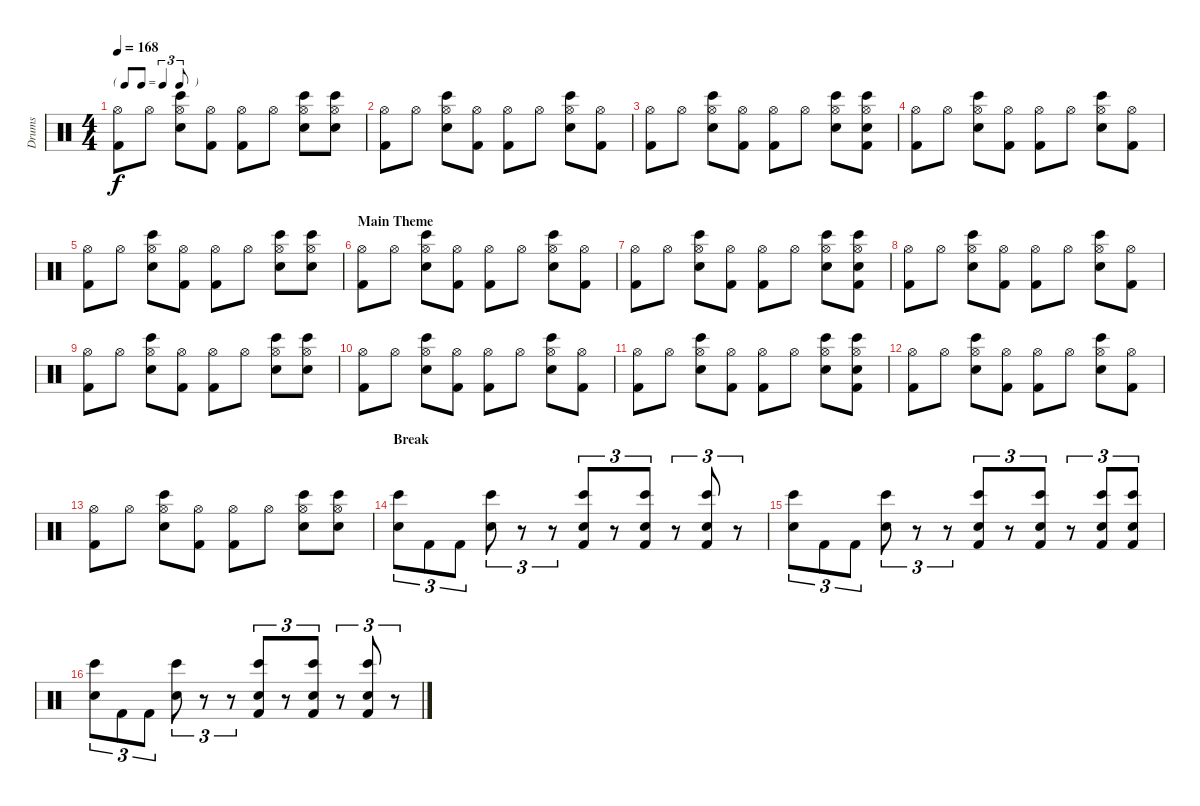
\track ("Drums" "Drums") {instrument percussion}
\staff {score}
\articulation defaults
\ts (4 4)
\tf triplet8th
\tempo 168
\clef neutral
\ks c
("Hi-Hat (open)" "Kick (hit) 2").8{dy f} "Hi-Hat (open)".8 ("Hi-Hat (open)" "Bongo High (hit)" "Snare (hit) 2").8 ("Hi-Hat (open)" "Kick (hit) 2").8 ("Hi-Hat (open)" "Kick (hit) 2").8 "Hi-Hat (open)".8 ("Hi-Hat (open)" "Bongo High (hit)" "Snare (hit) 2").8 ("Hi-Hat (open)" "Bongo High (hit)" "Snare (hit) 2").8 |
("Hi-Hat (open)" "Kick (hit) 2").8 "Hi-Hat (open)".8 ("Hi-Hat (open)" "Bongo High (hit)" "Snare (hit) 2").8 ("Hi-Hat (open)" "Kick (hit) 2").8 ("Hi-Hat (open)" "Kick (hit) 2").8 "Hi-Hat (open)".8 ("Hi-Hat (open)" "Bongo High (hit)" "Snare (hit) 2").8 ("Hi-Hat (open)" "Kick (hit) 2").8 |
("Hi-Hat (open)" "Kick (hit) 2").8 "Hi-Hat (open)".8 ("Hi-Hat (open)" "Bongo High (hit)" "Snare (hit) 2").8 ("Hi-Hat (open)" "Kick (hit) 2").8 ("Hi-Hat (open)" "Kick (hit) 2").8 "Hi-Hat (open)".8 ("Hi-Hat (open)" "Bongo High (hit)" "Snare (hit) 2").8 ("Hi-Hat (open)" "Bongo High (hit)" "Snare (hit) 2" "Kick (hit) 2").8 |
("Hi-Hat (open)" "Kick (hit) 2").8 "Hi-Hat (open)".8 ("Hi-Hat (open)" "Bongo High (hit)" "Snare (hit) 2").8 ("Hi-Hat (open)" "Kick (hit) 2").8 ("Hi-Hat (open)" "Kick (hit) 2").8 "Hi-Hat (open)".8 ("Hi-Hat (open)" "Bongo High (hit)" "Snare (hit) 2").8 ("Hi-Hat (open)" "Kick (hit) 2").8 |
("Hi-Hat (open)" "Kick (hit) 2").8 "Hi-Hat (open)".8 ("Hi-Hat (open)" "Bongo High (hit)" "Snare (hit) 2").8 ("Hi-Hat (open)" "Kick (hit) 2").8 ("Hi-Hat (open)" "Kick (hit) 2").8 "Hi-Hat (open)".8 ("Hi-Hat (open)" "Bongo High (hit)" "Snare (hit) 2").8 ("Hi-Hat (open)" "Bongo High (hit)" "Snare (hit) 2").8 |
\section ("" "Main Theme")
("Hi-Hat (open)" "Kick (hit) 2").8 "Hi-Hat (open)".8 ("Hi-Hat (open)" "Bongo High (hit)" "Snare (hit) 2").8 ("Hi-Hat (open)" "Kick (hit) 2").8 ("Hi-Hat (open)" "Kick (hit) 2").8 "Hi-Hat (open)".8 ("Hi-Hat (open)" "Bongo High (hit)" "Snare (hit) 2").8 ("Hi-Hat (open)" "Kick (hit) 2").8 |
("Hi-Hat (open)" "Kick (hit) 2").8 "Hi-Hat (open)".8 ("Hi-Hat (open)" "Bongo High (hit)" "Snare (hit) 2").8 ("Hi-Hat (open)" "Kick (hit) 2").8 ("Hi-Hat (open)" "Kick (hit) 2").8 "Hi-Hat (open)".8 ("Hi-Hat (open)" "Bongo High (hit)" "Snare (hit) 2").8 ("Hi-Hat (open)" "Bongo High (hit)" "Snare (hit) 2" "Kick (hit) 2").8 |
("Hi-Hat (open)" "Kick (hit) 2").8 "Hi-Hat (open)".8 ("Hi-Hat (open)" "Bongo High (hit)" "Snare (hit) 2").8 ("Hi-Hat (open)" "Kick (hit) 2").8 ("Hi-Hat (open)" "Kick (hit) 2").8 "Hi-Hat (open)".8 ("Hi-Hat (open)" "Bongo High (hit)" "Snare (hit) 2").8 ("Hi-Hat (open)" "Kick (hit) 2").8 |
("Hi-Hat (open)" "Kick (hit) 2").8 "Hi-Hat (open)".8 ("Hi-Hat (open)" "Bongo High (hit)" "Snare (hit) 2").8 ("Hi-Hat (open)" "Kick (hit) 2").8 ("Hi-Hat (open)" "Kick (hit) 2").8 "Hi-Hat (open)".8 ("Hi-Hat (open)" "Bongo High (hit)" "Snare (hit) 2").8 ("Hi-Hat (open)" "Bongo High (hit)" "Snare (hit) 2").8 |
("Hi-Hat (open)" "Kick (hit) 2").8 "Hi-Hat (open)".8 ("Hi-Hat (open)" "Bongo High (hit)" "Snare (hit) 2").8 ("Hi-Hat (open)" "Kick (hit) 2").8 ("Hi-Hat (open)" "Kick (hit) 2").8 "Hi-Hat (open)".8 ("Hi-Hat (open)" "Bongo High (hit)" "Snare (hit) 2").8 ("Hi-Hat (open)" "Kick (hit) 2").8 |
("Hi-Hat (open)" "Kick (hit) 2").8 "Hi-Hat (open)".8 ("Hi-Hat (open)" "Bongo High (hit)" "Snare (hit) 2").8 ("Hi-Hat (open)" "Kick (hit) 2").8 ("Hi-Hat (open)" "Kick (hit) 2").8 "Hi-Hat (open)".8 ("Hi-Hat (open)" "Bongo High (hit)" "Snare (hit) 2").8 ("Hi-Hat (open)" "Bongo High (hit)" "Snare (hit) 2" "Kick (hit) 2").8 |
("Hi-Hat (open)" "Kick (hit) 2").8 "Hi-Hat (open)".8 ("Hi-Hat (open)" "Bongo High (hit)" "Snare (hit) 2").8 ("Hi-Hat (open)" "Kick (hit) 2").8 ("Hi-Hat (open)" "Kick (hit) 2").8 "Hi-Hat (open)".8 ("Hi-Hat (open)" "Bongo High (hit)" "Snare (hit) 2").8 ("Hi-Hat (open)" "Kick (hit) 2").8 |
("Hi-Hat (open)" "Kick (hit) 2").8 "Hi-Hat (open)".8 ("Hi-Hat (open)" "Bongo High (hit)" "Snare (hit) 2").8 ("Hi-Hat (open)" "Kick (hit) 2").8 ("Hi-Hat (open)" "Kick (hit) 2").8 "Hi-Hat (open)".8 ("Hi-Hat (open)" "Bongo High (hit)" "Snare (hit) 2").8 ("Hi-Hat (open)" "Bongo High (hit)" "Snare (hit) 2").8 |
\section ("" "Break")
("Bongo High (hit)" "Snare (hit) 2").8{tu (3 2)} "Kick (hit) 2".8{tu (3 2)} "Kick (hit) 2".8{tu (3 2)} ("Bongo High (hit)" "Snare (hit) 2").8{tu (3 2)} r.8{tu (3 2)} r.8{tu (3 2)} ("Bongo High (hit)" "Snare (hit) 2" "Kick (hit) 2").8{tu (3 2)} r.8{tu (3 2)} ("Bongo High (hit)" "Snare (hit) 2" "Kick (hit) 2").8{tu (3 2)} r.8{tu (3 2)} ("Bongo High (hit)" "Snare (hit) 2" "Kick (hit) 2").8{tu (3 2)} r.8{tu (3 2)} |
("Bongo High (hit)" "Snare (hit) 2").8{tu (3 2)} "Kick (hit) 2".8{tu (3 2)} "Kick (hit) 2".8{tu (3 2)} ("Bongo High (hit)" "Snare (hit) 2").8{tu (3 2)} r.8{tu (3 2)} r.8{tu (3 2)} ("Bongo High (hit)" "Snare (hit) 2" "Kick (hit) 2").8{tu (3 2)} r.8{tu (3 2)} ("Bongo High (hit)" "Snare (hit) 2" "Kick (hit) 2").8{tu (3 2)} r.8{tu (3 2)} ("Bongo High (hit)" "Snare (hit) 2" "Kick (hit) 2").8{tu (3 2)} ("Bongo High (hit)" "Snare (hit) 2" "Kick (hit) 2").8{tu (3 2)} |
("Bongo High (hit)" "Snare (hit) 2").8{tu (3 2)} "Kick (hit) 2".8{tu (3 2)} "Kick (hit) 2".8{tu (3 2)} ("Bongo High (hit)" "Snare (hit) 2").8{tu (3 2)} r.8{tu (3 2)} r.8{tu (3 2)} ("Bongo High (hit)" "Snare (hit) 2" "Kick (hit) 2").8{tu (3 2)} r.8{tu (3 2)} ("Bongo High (hit)" "Snare (hit) 2" "Kick (hit) 2").8{tu (3 2)} r.8{tu (3 2)} ("Bongo High (hit)" "Snare (hit) 2" "Kick (hit) 2").8{tu (3 2)} r.8{tu (3 2)}
